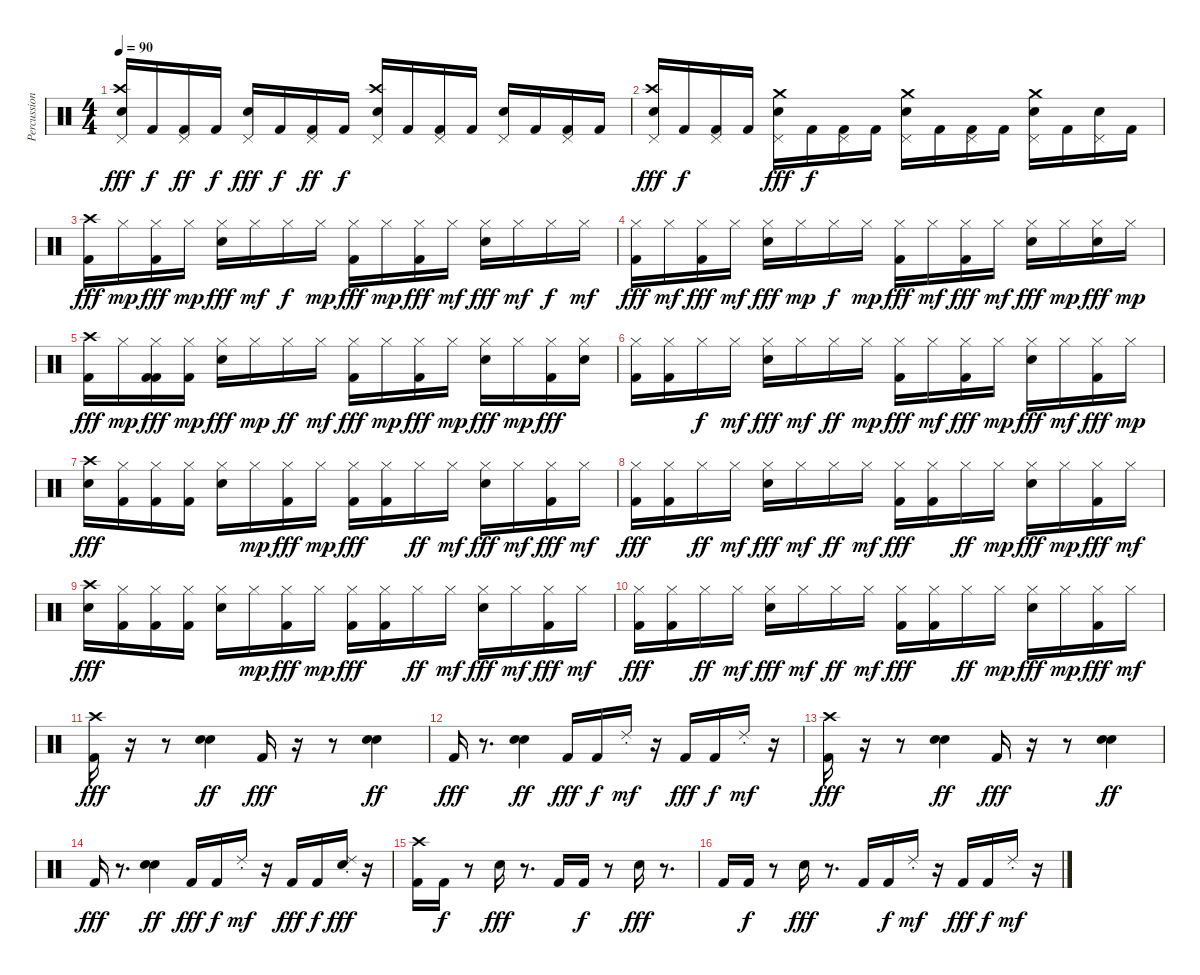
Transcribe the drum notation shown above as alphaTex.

\track ("Percussion" "Percussion") {instrument percussion}
\staff {score}
\articulation defaults
\ts (4 4)
\tempo 90
\clef neutral
\ks c
("Pedal Hi-Hat (hit)" "Crash high (hit)" "Electric Snare (hit)").16{dy fff} "Kick (hit) 2".16{dy f} ("Pedal Hi-Hat (hit)" "Kick (hit) 2").16{dy ff} "Kick (hit) 2".16{dy f} ("Pedal Hi-Hat (hit)" "Electric Snare (hit)").16{dy fff} "Kick (hit) 2".16{dy f} ("Pedal Hi-Hat (hit)" "Kick (hit) 2").16{dy ff} "Kick (hit) 2".16{dy f} ("Pedal Hi-Hat (hit)" "Crash high (hit)" "Electric Snare (hit)").16 "Kick (hit) 2".16 ("Pedal Hi-Hat (hit)" "Kick (hit) 2").16 "Kick (hit) 2".16 ("Pedal Hi-Hat (hit)" "Electric Snare (hit)").16 "Kick (hit) 2".16 ("Pedal Hi-Hat (hit)" "Kick (hit) 2").16 "Kick (hit) 2".16 |
("Pedal Hi-Hat (hit)" "Crash high (hit)" "Electric Snare (hit)").16{dy fff} "Kick (hit) 2".16{dy f} ("Pedal Hi-Hat (hit)" "Kick (hit) 2").16 "Kick (hit) 2".16 ("Pedal Hi-Hat (hit)" "Crash medium (hit)" "Electric Snare (hit)").16{dy fff} "Kick (hit) 2".16{dy f} ("Pedal Hi-Hat (hit)" "Kick (hit) 2").16 "Kick (hit) 2".16 ("Pedal Hi-Hat (hit)" "Crash medium (hit)" "Electric Snare (hit)").16 "Kick (hit) 2".16 ("Pedal Hi-Hat (hit)" "Kick (hit) 2").16 "Kick (hit) 2".16 ("Pedal Hi-Hat (hit)" "Crash medium (hit)" "Electric Snare (hit)").16 "Kick (hit) 2".16 ("Pedal Hi-Hat (hit)" "Electric Snare (hit)").16 "Kick (hit) 2".16 |
("Crash high (hit)" "Kick (hit) 2").16{dy fff} "Hi-Hat (closed)".16{dy mp} ("Hi-Hat (closed)" "Kick (hit) 2").16{dy fff} "Hi-Hat (closed)".16{dy mp} ("Hi-Hat (closed)" "Electric Snare (hit)").16{dy fff} "Hi-Hat (closed)".16{dy mf} "Hi-Hat (closed)".16{dy f} "Hi-Hat (closed)".16{dy mp} ("Hi-Hat (closed)" "Kick (hit) 2").16{dy fff} "Hi-Hat (closed)".16{dy mp} ("Hi-Hat (closed)" "Kick (hit) 2").16{dy fff} "Hi-Hat (closed)".16{dy mf} ("Hi-Hat (closed)" "Electric Snare (hit)").16{dy fff} "Hi-Hat (closed)".16{dy mf} "Hi-Hat (closed)".16{dy f} "Hi-Hat (closed)".16{dy mf} |
("Hi-Hat (closed)" "Kick (hit) 2").16{dy fff} "Hi-Hat (closed)".16{dy mf} ("Hi-Hat (closed)" "Kick (hit) 2").16{dy fff} "Hi-Hat (closed)".16{dy mf} ("Hi-Hat (closed)" "Electric Snare (hit)").16{dy fff} "Hi-Hat (closed)".16{dy mp} "Hi-Hat (closed)".16{dy f} "Hi-Hat (closed)".16{dy mp} ("Hi-Hat (closed)" "Kick (hit) 2").16{dy fff} "Hi-Hat (closed)".16{dy mf} ("Hi-Hat (closed)" "Kick (hit) 2").16{dy fff} "Hi-Hat (closed)".16{dy mf} ("Hi-Hat (closed)" "Electric Snare (hit)").16{dy fff} "Hi-Hat (closed)".16{dy mp} ("Hi-Hat (closed)" "Electric Snare (hit)").16{dy fff} "Hi-Hat (closed)".16{dy mp} |
("Crash high (hit)" "Kick (hit) 2").16{dy fff} "Hi-Hat (closed)".16{dy mp} ("Hi-Hat (closed)" "Kick (hit) 2" "Kick (hit) 2").16{dy fff} ("Hi-Hat (closed)" "Kick (hit) 2").16{dy mp} ("Hi-Hat (closed)" "Electric Snare (hit)").16{dy fff} "Hi-Hat (closed)".16{dy mp} "Hi-Hat (closed)".16{dy ff} "Hi-Hat (closed)".16{dy mf} ("Hi-Hat (closed)" "Kick (hit) 2").16{dy fff} "Hi-Hat (closed)".16{dy mp} ("Hi-Hat (closed)" "Kick (hit) 2").16{dy fff} "Hi-Hat (closed)".16{dy mp} ("Hi-Hat (closed)" "Electric Snare (hit)").16{dy fff} "Hi-Hat (closed)".16{dy mp} ("Hi-Hat (closed)" "Kick (hit) 2").16{dy fff} ("Hi-Hat (closed)" "Electric Snare (hit)").16 |
("Hi-Hat (closed)" "Kick (hit) 2").16 ("Hi-Hat (closed)" "Kick (hit) 2").16 "Hi-Hat (closed)".16{dy f} "Hi-Hat (closed)".16{dy mf} ("Hi-Hat (closed)" "Electric Snare (hit)").16{dy fff} "Hi-Hat (closed)".16{dy mf} "Hi-Hat (closed)".16{dy ff} "Hi-Hat (closed)".16{dy mp} ("Hi-Hat (closed)" "Kick (hit) 2").16{dy fff} "Hi-Hat (closed)".16{dy mf} ("Hi-Hat (closed)" "Kick (hit) 2").16{dy fff} "Hi-Hat (closed)".16{dy mp} ("Hi-Hat (closed)" "Electric Snare (hit)").16{dy fff} "Hi-Hat (closed)".16{dy mf} ("Hi-Hat (closed)" "Kick (hit) 2").16{dy fff} "Hi-Hat (closed)".16{dy mp} |
("Crash high (hit)" "Electric Snare (hit)").16{dy fff} ("Hi-Hat (closed)" "Kick (hit) 2").16 ("Hi-Hat (closed)" "Kick (hit) 2").16 ("Hi-Hat (closed)" "Kick (hit) 2").16 ("Hi-Hat (closed)" "Electric Snare (hit)").16 "Hi-Hat (closed)".16{dy mp} ("Hi-Hat (closed)" "Kick (hit) 2").16{dy fff} "Hi-Hat (closed)".16{dy mp} ("Hi-Hat (closed)" "Kick (hit) 2").16{dy fff} ("Hi-Hat (closed)" "Kick (hit) 2").16 "Hi-Hat (closed)".16{dy ff} "Hi-Hat (closed)".16{dy mf} ("Hi-Hat (closed)" "Electric Snare (hit)").16{dy fff} "Hi-Hat (closed)".16{dy mf} ("Hi-Hat (closed)" "Kick (hit) 2").16{dy fff} "Hi-Hat (closed)".16{dy mf} |
("Hi-Hat (closed)" "Kick (hit) 2").16{dy fff} ("Hi-Hat (closed)" "Kick (hit) 2").16 "Hi-Hat (closed)".16{dy ff} "Hi-Hat (closed)".16{dy mf} ("Hi-Hat (closed)" "Electric Snare (hit)").16{dy fff} "Hi-Hat (closed)".16{dy mf} "Hi-Hat (closed)".16{dy ff} "Hi-Hat (closed)".16{dy mf} ("Hi-Hat (closed)" "Kick (hit) 2").16{dy fff} ("Hi-Hat (closed)" "Kick (hit) 2").16 "Hi-Hat (closed)".16{dy ff} "Hi-Hat (closed)".16{dy mp} ("Hi-Hat (closed)" "Electric Snare (hit)").16{dy fff} "Hi-Hat (closed)".16{dy mp} ("Hi-Hat (closed)" "Kick (hit) 2").16{dy fff} "Hi-Hat (closed)".16{dy mf} |
("Crash high (hit)" "Electric Snare (hit)").16{dy fff} ("Hi-Hat (closed)" "Kick (hit) 2").16 ("Hi-Hat (closed)" "Kick (hit) 2").16 ("Hi-Hat (closed)" "Kick (hit) 2").16 ("Hi-Hat (closed)" "Electric Snare (hit)").16 "Hi-Hat (closed)".16{dy mp} ("Hi-Hat (closed)" "Kick (hit) 2").16{dy fff} "Hi-Hat (closed)".16{dy mp} ("Hi-Hat (closed)" "Kick (hit) 2").16{dy fff} ("Hi-Hat (closed)" "Kick (hit) 2").16 "Hi-Hat (closed)".16{dy ff} "Hi-Hat (closed)".16{dy mf} ("Hi-Hat (closed)" "Electric Snare (hit)").16{dy fff} "Hi-Hat (closed)".16{dy mf} ("Hi-Hat (closed)" "Kick (hit) 2").16{dy fff} "Hi-Hat (closed)".16{dy mf} |
("Hi-Hat (closed)" "Kick (hit) 2").16{dy fff} ("Hi-Hat (closed)" "Kick (hit) 2").16 "Hi-Hat (closed)".16{dy ff} "Hi-Hat (closed)".16{dy mf} ("Hi-Hat (closed)" "Electric Snare (hit)").16{dy fff} "Hi-Hat (closed)".16{dy mf} "Hi-Hat (closed)".16{dy ff} "Hi-Hat (closed)".16{dy mf} ("Hi-Hat (closed)" "Kick (hit) 2").16{dy fff} ("Hi-Hat (closed)" "Kick (hit) 2").16 "Hi-Hat (closed)".16{dy ff} "Hi-Hat (closed)".16{dy mp} ("Hi-Hat (closed)" "Electric Snare (hit)").16{dy fff} "Hi-Hat (closed)".16{dy mp} ("Hi-Hat (closed)" "Kick (hit) 2").16{dy fff} "Hi-Hat (closed)".16{dy mf} |
("Crash high (hit)" "Kick (hit) 2").16{dy fff} r.16 r.8 ("Electric Snare (hit)" "Electric Snare (hit)").4{dy ff} "Kick (hit) 2".16{dy fff} r.16 r.8 ("Electric Snare (hit)" "Electric Snare (hit)").4{dy ff} |
"Kick (hit) 2".16{dy fff} r.8{d} ("Electric Snare (hit)" "Electric Snare (hit)").4{dy ff} "Kick (hit) 2".16{dy fff} "Kick (hit) 2".16{dy f} "Ride (choke) 2".16{dy mf} r.16 "Kick (hit) 2".16{dy fff} "Kick (hit) 2".16{dy f} "Ride (choke) 2".16{dy mf} r.16 |
("Crash high (hit)" "Kick (hit) 2").16{dy fff} r.16 r.8 ("Electric Snare (hit)" "Electric Snare (hit)").4{dy ff} "Kick (hit) 2".16{dy fff} r.16 r.8 ("Electric Snare (hit)" "Electric Snare (hit)").4{dy ff} |
"Kick (hit) 2".16{dy fff} r.8{d} ("Electric Snare (hit)" "Electric Snare (hit)").4{dy ff} "Kick (hit) 2".16{dy fff} "Kick (hit) 2".16{dy f} "Ride (choke) 2".16{dy mf} r.16 "Kick (hit) 2".16{dy fff} "Kick (hit) 2".16{dy f} ("Ride (choke) 2" "Electric Snare (hit)").16{dy fff} r.16 |
("Crash high (hit)" "Kick (hit) 2").16 "Kick (hit) 2".16{dy f} r.8 "Electric Snare (hit)".16{dy fff} r.8{d} "Kick (hit) 2".16 "Kick (hit) 2".16{dy f} r.8 "Electric Snare (hit)".16{dy fff} r.8{d} |
"Kick (hit) 2".16 "Kick (hit) 2".16{dy f} r.8 "Electric Snare (hit)".16{dy fff} r.8{d} "Kick (hit) 2".16 "Kick (hit) 2".16{dy f} "Ride (choke) 2".16{dy mf} r.16 "Kick (hit) 2".16{dy fff} "Kick (hit) 2".16{dy f} "Ride (choke) 2".16{dy mf} r.16
